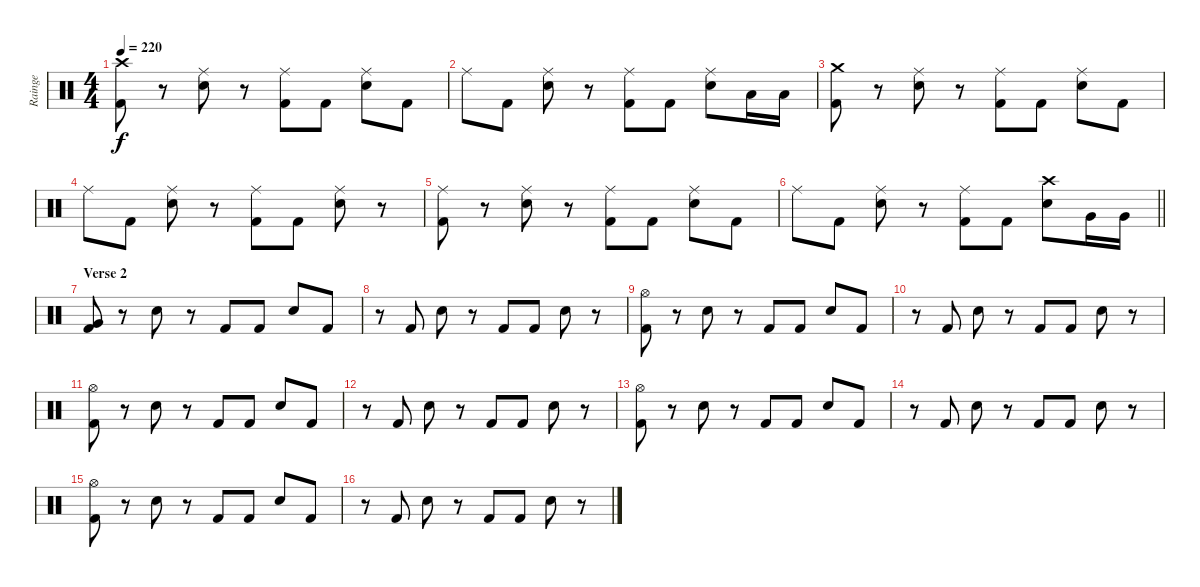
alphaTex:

\track ("Rainge" "Rainge") {instrument percussion}
\staff {score}
\articulation defaults
\ts (4 4)
\tempo 220
\clef neutral
\ks c
("Crash high (hit)" "Kick (hit) 2").8{dy f} r.8 ("Ride (middle)" "Electric Snare (hit)").8 r.8 ("Ride (middle)" "Kick (hit) 2").8 "Kick (hit) 2".8 ("Ride (middle)" "Electric Snare (hit)").8 "Kick (hit) 2".8 |
"Ride (middle)".8 "Kick (hit) 2".8 ("Ride (middle)" "Electric Snare (hit)").8 r.8 ("Ride (middle)" "Kick (hit) 2").8 "Kick (hit) 2".8 ("Ride (middle)" "Electric Snare (hit)").8 "Low Tom (hit)".16 "Low Tom (hit)".16 |
("Crash medium (hit)" "Kick (hit) 2").8 r.8 ("Ride (middle)" "Electric Snare (hit)").8 r.8 ("Ride (middle)" "Kick (hit) 2").8 "Kick (hit) 2".8 ("Ride (middle)" "Electric Snare (hit)").8 "Kick (hit) 2".8 |
"Ride (middle)".8 "Kick (hit) 2".8 ("Ride (middle)" "Electric Snare (hit)").8 r.8 ("Ride (middle)" "Kick (hit) 2").8 "Kick (hit) 2".8 ("Ride (middle)" "Electric Snare (hit)").8 r.8 |
("Ride (middle)" "Kick (hit) 2").8 r.8 ("Ride (middle)" "Electric Snare (hit)").8 r.8 ("Ride (middle)" "Kick (hit) 2").8 "Kick (hit) 2".8 ("Ride (middle)" "Electric Snare (hit)").8 "Kick (hit) 2".8 |
\barLineRight lightlight "Ride (middle)".8 "Kick (hit) 2".8
("Ride (middle)" "Electric Snare (hit)").8 r.8 ("Ride (middle)" "Kick (hit) 2").8 "Kick (hit) 2".8 ("Crash high (hit)" "Electric Snare (hit)").8 "Very Low Tom (hit)".16 "Very Low Tom (hit)".16 |
\section ("" "Verse 2")
("Very Low Tom (hit)" "Kick (hit) 2").8 r.8 "Electric Snare (hit)".8 r.8 "Kick (hit) 2".8 "Kick (hit) 2".8 "Electric Snare (hit)".8 "Kick (hit) 2".8 |
r.8 "Kick (hit) 2".8 "Electric Snare (hit)".8 r.8 "Kick (hit) 2".8 "Kick (hit) 2".8 "Electric Snare (hit)".8 r.8 |
("Hi-Hat (open)" "Kick (hit) 2").8 r.8 "Electric Snare (hit)".8 r.8 "Kick (hit) 2".8 "Kick (hit) 2".8 "Electric Snare (hit)".8 "Kick (hit) 2".8 |
r.8 "Kick (hit) 2".8 "Electric Snare (hit)".8 r.8 "Kick (hit) 2".8 "Kick (hit) 2".8 "Electric Snare (hit)".8 r.8 |
("Hi-Hat (open)" "Kick (hit) 2").8 r.8 "Electric Snare (hit)".8 r.8 "Kick (hit) 2".8 "Kick (hit) 2".8 "Electric Snare (hit)".8 "Kick (hit) 2".8 |
r.8 "Kick (hit) 2".8 "Electric Snare (hit)".8 r.8 "Kick (hit) 2".8 "Kick (hit) 2".8 "Electric Snare (hit)".8 r.8 |
("Hi-Hat (open)" "Kick (hit) 2").8 r.8 "Electric Snare (hit)".8 r.8 "Kick (hit) 2".8 "Kick (hit) 2".8 "Electric Snare (hit)".8 "Kick (hit) 2".8 |
r.8 "Kick (hit) 2".8 "Electric Snare (hit)".8 r.8 "Kick (hit) 2".8 "Kick (hit) 2".8 "Electric Snare (hit)".8 r.8 |
("Hi-Hat (open)" "Kick (hit) 2").8 r.8 "Electric Snare (hit)".8 r.8 "Kick (hit) 2".8 "Kick (hit) 2".8 "Electric Snare (hit)".8 "Kick (hit) 2".8 |
r.8 "Kick (hit) 2".8 "Electric Snare (hit)".8 r.8 "Kick (hit) 2".8 "Kick (hit) 2".8 "Electric Snare (hit)".8 r.8
